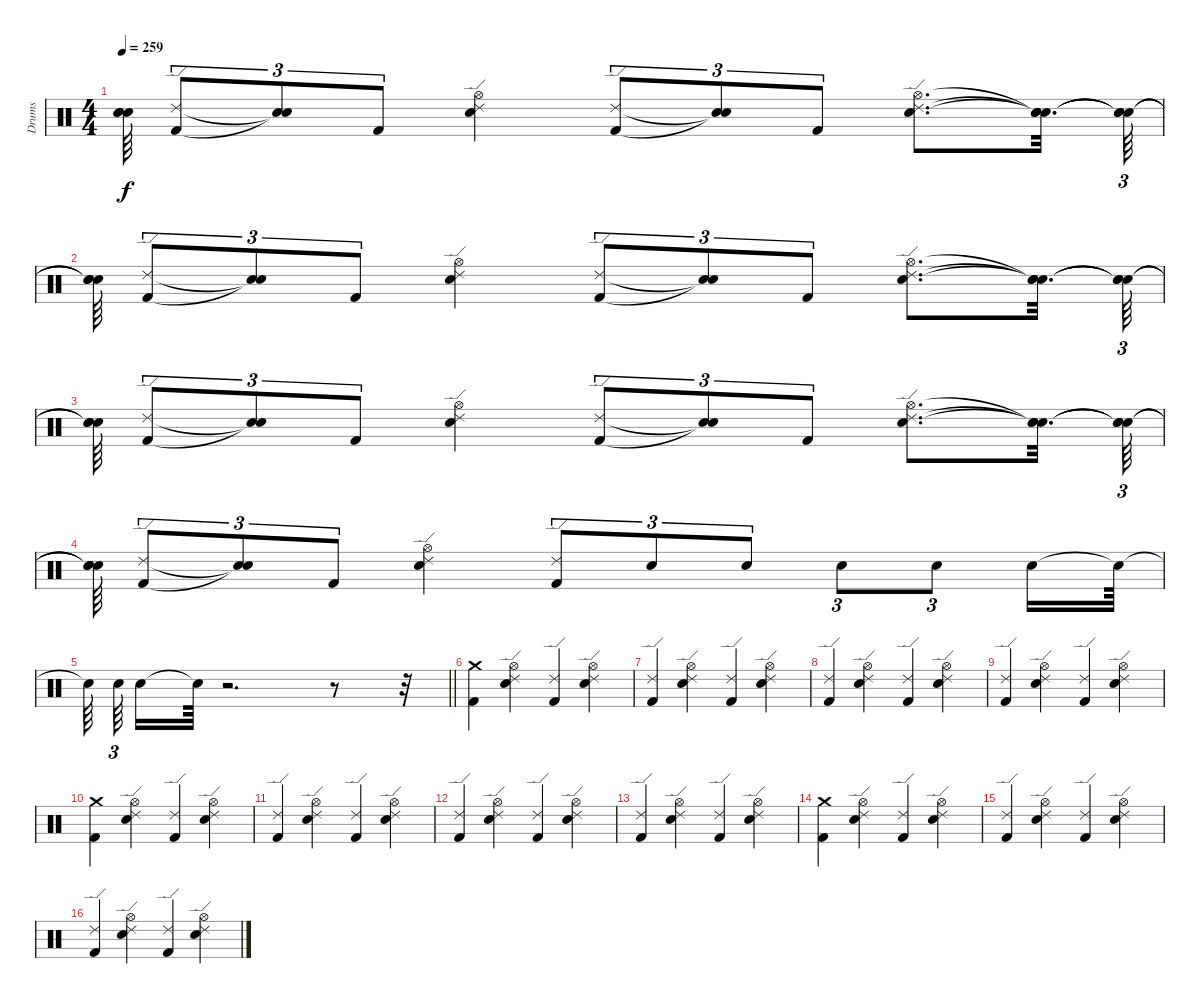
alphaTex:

\track ("Drums" "Drums") {instrument percussion}
\staff {score}
\articulation defaults
\ts (4 4)
\tempo 259
\clef neutral
\ks c
("Snare (hit)"{t} "Snare (hit)"{t} "Snare (hit)"{t}).64{dy f} ("Kick (hit) 2" "Ride (edge) 2").8{tu (3 2)} ("Snare (hit)"{t} "Snare (hit)"{t}).8{tu (3 2)} "Kick (hit) 2".8{tu (3 2)} ("Electric Snare (hit)" "Ride (edge) 2" "Hi-Hat (open)").4 ("Kick (hit) 2" "Ride (edge) 2").8{tu (3 2)} ("Snare (hit)"{t} "Snare (hit)"{t}).8{tu (3 2)} "Kick (hit) 2".8{tu (3 2)} ("Electric Snare (hit)" "Ride (edge) 2" "Hi-Hat (open)").8{d} ("Snare (hit)"{t} "Snare (hit)"{t} "Snare (hit)"{t}).32{d} ("Snare (hit)"{t} "Snare (hit)"{t} "Snare (hit)"{t}).64{tu (3 2)} |
("Snare (hit)"{t} "Snare (hit)"{t} "Snare (hit)"{t}).64 ("Kick (hit) 2" "Ride (edge) 2").8{tu (3 2)} ("Snare (hit)"{t} "Snare (hit)"{t}).8{tu (3 2)} "Kick (hit) 2".8{tu (3 2)} ("Electric Snare (hit)" "Ride (edge) 2" "Hi-Hat (open)").4 ("Kick (hit) 2" "Ride (edge) 2").8{tu (3 2)} ("Snare (hit)"{t} "Snare (hit)"{t}).8{tu (3 2)} "Kick (hit) 2".8{tu (3 2)} ("Electric Snare (hit)" "Ride (edge) 2" "Hi-Hat (open)").8{d} ("Snare (hit)"{t} "Snare (hit)"{t} "Snare (hit)"{t}).32{d} ("Snare (hit)"{t} "Snare (hit)"{t} "Snare (hit)"{t}).64{tu (3 2)} |
("Snare (hit)"{t} "Snare (hit)"{t} "Snare (hit)"{t}).64 ("Kick (hit) 2" "Ride (edge) 2").8{tu (3 2)} ("Snare (hit)"{t} "Snare (hit)"{t}).8{tu (3 2)} "Kick (hit) 2".8{tu (3 2)} ("Electric Snare (hit)" "Ride (edge) 2" "Hi-Hat (open)").4 ("Kick (hit) 2" "Ride (edge) 2").8{tu (3 2)} ("Snare (hit)"{t} "Snare (hit)"{t}).8{tu (3 2)} "Kick (hit) 2".8{tu (3 2)} ("Electric Snare (hit)" "Ride (edge) 2" "Hi-Hat (open)").8{d} ("Snare (hit)"{t} "Snare (hit)"{t} "Snare (hit)"{t}).32{d} ("Snare (hit)"{t} "Snare (hit)"{t} "Snare (hit)"{t}).64{tu (3 2)} |
("Snare (hit)"{t} "Snare (hit)"{t} "Snare (hit)"{t}).64 ("Kick (hit) 2" "Ride (edge) 2").8{tu (3 2)} ("Snare (hit)"{t} "Snare (hit)"{t}).8{tu (3 2)} "Kick (hit) 2".8{tu (3 2)} ("Electric Snare (hit)" "Ride (edge) 2" "Hi-Hat (open)").4 ("Kick (hit) 2" "Ride (edge) 2").8{tu (3 2)} "Electric Snare (hit)".8{tu (3 2)} "Electric Snare (hit)".8{tu (3 2)} "Electric Snare (hit)".8{tu (3 2)} "Electric Snare (hit)".8{tu (3 2)} "Electric Snare (hit)".16 "Snare (hit)"{t}.64 |
\barLineRight lightlight "Snare (hit)"{t}.64{beam splitsecondary} "Electric Snare (hit)".64{tu (3 2) beam splitsecondary} "Electric Snare (hit)".16 "Snare (hit)"{t}.64
r.2{d} r.8 r.32 |
("Kick (hit) 2" "Crash medium (hit)").4 ("Electric Snare (hit)" "Ride (edge) 2" "Hi-Hat (open)").4 ("Kick (hit) 2" "Ride (edge) 2").4 ("Electric Snare (hit)" "Ride (edge) 2" "Hi-Hat (open)").4 |
("Kick (hit) 2" "Ride (edge) 2").4 ("Electric Snare (hit)" "Ride (edge) 2" "Hi-Hat (open)").4 ("Kick (hit) 2" "Ride (edge) 2").4 ("Electric Snare (hit)" "Ride (edge) 2" "Hi-Hat (open)").4 |
("Kick (hit) 2" "Ride (edge) 2").4 ("Electric Snare (hit)" "Ride (edge) 2" "Hi-Hat (open)").4 ("Kick (hit) 2" "Ride (edge) 2").4 ("Electric Snare (hit)" "Ride (edge) 2" "Hi-Hat (open)").4 |
("Kick (hit) 2" "Ride (edge) 2").4 ("Electric Snare (hit)" "Ride (edge) 2" "Hi-Hat (open)").4 ("Kick (hit) 2" "Ride (edge) 2").4 ("Electric Snare (hit)" "Ride (edge) 2" "Hi-Hat (open)").4 |
("Kick (hit) 2" "Crash medium (hit)").4 ("Electric Snare (hit)" "Ride (edge) 2" "Hi-Hat (open)").4 ("Kick (hit) 2" "Ride (edge) 2").4 ("Electric Snare (hit)" "Ride (edge) 2" "Hi-Hat (open)").4 |
("Kick (hit) 2" "Ride (edge) 2").4 ("Electric Snare (hit)" "Ride (edge) 2" "Hi-Hat (open)").4 ("Kick (hit) 2" "Ride (edge) 2").4 ("Electric Snare (hit)" "Ride (edge) 2" "Hi-Hat (open)").4 |
("Kick (hit) 2" "Ride (edge) 2").4 ("Electric Snare (hit)" "Ride (edge) 2" "Hi-Hat (open)").4 ("Kick (hit) 2" "Ride (edge) 2").4 ("Electric Snare (hit)" "Ride (edge) 2" "Hi-Hat (open)").4 |
("Kick (hit) 2" "Ride (edge) 2").4 ("Electric Snare (hit)" "Ride (edge) 2" "Hi-Hat (open)").4 ("Kick (hit) 2" "Ride (edge) 2").4 ("Electric Snare (hit)" "Ride (edge) 2" "Hi-Hat (open)").4 |
("Kick (hit) 2" "Crash medium (hit)").4 ("Electric Snare (hit)" "Ride (edge) 2" "Hi-Hat (open)").4 ("Kick (hit) 2" "Ride (edge) 2").4 ("Electric Snare (hit)" "Ride (edge) 2" "Hi-Hat (open)").4 |
("Kick (hit) 2" "Ride (edge) 2").4 ("Electric Snare (hit)" "Ride (edge) 2" "Hi-Hat (open)").4 ("Kick (hit) 2" "Ride (edge) 2").4 ("Electric Snare (hit)" "Ride (edge) 2" "Hi-Hat (open)").4 |
("Kick (hit) 2" "Ride (edge) 2").4 ("Electric Snare (hit)" "Ride (edge) 2" "Hi-Hat (open)").4 ("Kick (hit) 2" "Ride (edge) 2").4 ("Electric Snare (hit)" "Ride (edge) 2" "Hi-Hat (open)").4
